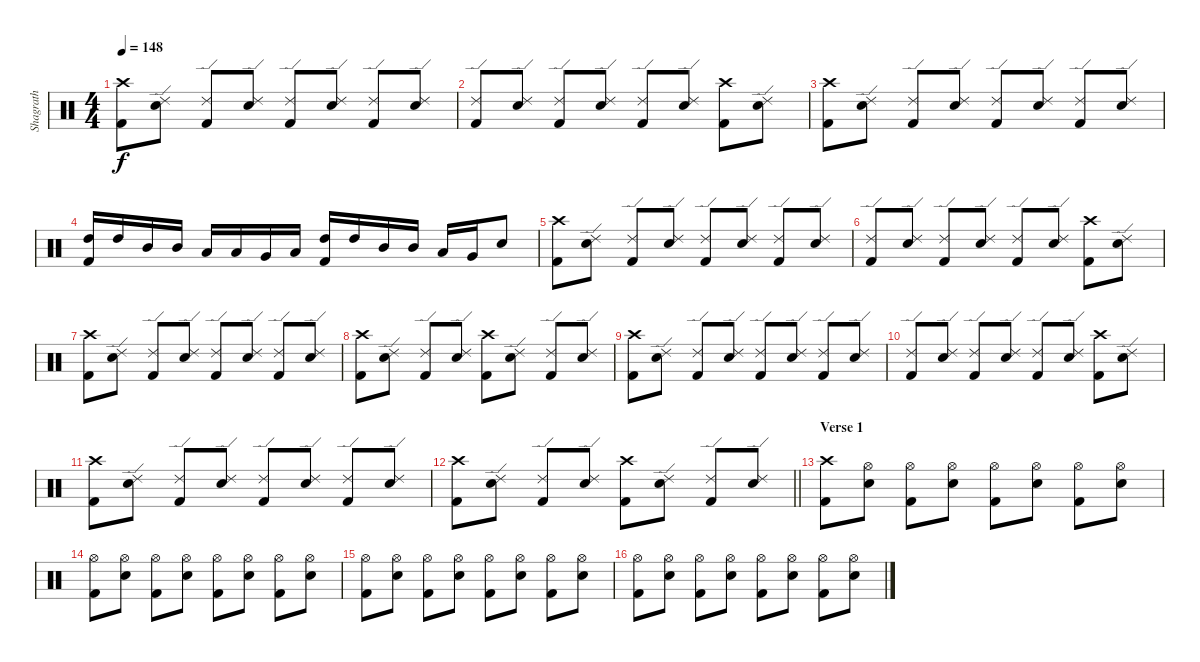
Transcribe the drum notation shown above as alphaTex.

\track ("Shagrath" "Shagrath") {instrument percussion}
\staff {score}
\articulation defaults
\ts (4 4)
\tempo 148
\clef neutral
\ks c
("Crash high (hit)" "Kick (hit) 2").8{dy f} ("Ride (edge) 2" "Electric Snare (hit)").8 ("Ride (edge) 2" "Kick (hit) 2").8 ("Ride (edge) 2" "Electric Snare (hit)").8 ("Ride (edge) 2" "Kick (hit) 2").8 ("Ride (edge) 2" "Electric Snare (hit)").8 ("Ride (edge) 2" "Kick (hit) 2").8 ("Ride (edge) 2" "Electric Snare (hit)").8 |
("Ride (edge) 2" "Kick (hit) 2").8 ("Ride (edge) 2" "Electric Snare (hit)").8 ("Ride (edge) 2" "Kick (hit) 2").8 ("Ride (edge) 2" "Electric Snare (hit)").8 ("Ride (edge) 2" "Kick (hit) 2").8 ("Ride (edge) 2" "Electric Snare (hit)").8 ("Crash high (hit)" "Kick (hit) 2").8 ("Ride (edge) 2" "Electric Snare (hit)").8 |
("Crash high (hit)" "Kick (hit) 2").8 ("Ride (edge) 2" "Electric Snare (hit)").8 ("Ride (edge) 2" "Kick (hit) 2").8 ("Ride (edge) 2" "Electric Snare (hit)").8 ("Ride (edge) 2" "Kick (hit) 2").8 ("Ride (edge) 2" "Electric Snare (hit)").8 ("Ride (edge) 2" "Kick (hit) 2").8 ("Ride (edge) 2" "Electric Snare (hit)").8 |
("High Tom (hit)" "Kick (hit) 2").16 "High Tom (hit)".16 "Mid Tom (hit)".16 "Mid Tom (hit)".16 "Low Tom (hit)".16 "Low Tom (hit)".16 "Very Low Tom (hit)".16 "Low Floor Tom (hit)".16 ("High Tom (hit)" "Kick (hit) 2").16 "High Tom (hit)".16 "Mid Tom (hit)".16 "Mid Tom (hit)".16 "Low Tom (hit)".16 "Very Low Tom (hit)".16 "Electric Snare (hit)".8 |
("Crash high (hit)" "Kick (hit) 2").8 ("Ride (edge) 2" "Electric Snare (hit)").8 ("Ride (edge) 2" "Kick (hit) 2").8 ("Ride (edge) 2" "Electric Snare (hit)").8 ("Ride (edge) 2" "Kick (hit) 2").8 ("Ride (edge) 2" "Electric Snare (hit)").8 ("Ride (edge) 2" "Kick (hit) 2").8 ("Ride (edge) 2" "Electric Snare (hit)").8 |
("Ride (edge) 2" "Kick (hit) 2").8 ("Ride (edge) 2" "Electric Snare (hit)").8 ("Ride (edge) 2" "Kick (hit) 2").8 ("Ride (edge) 2" "Electric Snare (hit)").8 ("Ride (edge) 2" "Kick (hit) 2").8 ("Ride (edge) 2" "Electric Snare (hit)").8 ("Crash high (hit)" "Kick (hit) 2").8 ("Ride (edge) 2" "Electric Snare (hit)").8 |
("Crash high (hit)" "Kick (hit) 2").8 ("Ride (edge) 2" "Electric Snare (hit)").8 ("Ride (edge) 2" "Kick (hit) 2").8 ("Ride (edge) 2" "Electric Snare (hit)").8 ("Ride (edge) 2" "Kick (hit) 2").8 ("Ride (edge) 2" "Electric Snare (hit)").8 ("Ride (edge) 2" "Kick (hit) 2").8 ("Ride (edge) 2" "Electric Snare (hit)").8 |
("Crash high (hit)" "Kick (hit) 2").8 ("Ride (edge) 2" "Electric Snare (hit)").8 ("Ride (edge) 2" "Kick (hit) 2").8 ("Ride (edge) 2" "Electric Snare (hit)").8 ("Crash high (hit)" "Kick (hit) 2").8 ("Ride (edge) 2" "Electric Snare (hit)").8 ("Ride (edge) 2" "Kick (hit) 2").8 ("Ride (edge) 2" "Electric Snare (hit)").8 |
("Crash high (hit)" "Kick (hit) 2").8 ("Ride (edge) 2" "Electric Snare (hit)").8 ("Ride (edge) 2" "Kick (hit) 2").8 ("Ride (edge) 2" "Electric Snare (hit)").8 ("Ride (edge) 2" "Kick (hit) 2").8 ("Ride (edge) 2" "Electric Snare (hit)").8 ("Ride (edge) 2" "Kick (hit) 2").8 ("Ride (edge) 2" "Electric Snare (hit)").8 |
("Ride (edge) 2" "Kick (hit) 2").8 ("Ride (edge) 2" "Electric Snare (hit)").8 ("Ride (edge) 2" "Kick (hit) 2").8 ("Ride (edge) 2" "Electric Snare (hit)").8 ("Ride (edge) 2" "Kick (hit) 2").8 ("Ride (edge) 2" "Electric Snare (hit)").8 ("Crash high (hit)" "Kick (hit) 2").8 ("Ride (edge) 2" "Electric Snare (hit)").8 |
("Crash high (hit)" "Kick (hit) 2").8 ("Ride (edge) 2" "Electric Snare (hit)").8 ("Ride (edge) 2" "Kick (hit) 2").8 ("Ride (edge) 2" "Electric Snare (hit)").8 ("Ride (edge) 2" "Kick (hit) 2").8 ("Ride (edge) 2" "Electric Snare (hit)").8 ("Ride (edge) 2" "Kick (hit) 2").8 ("Ride (edge) 2" "Electric Snare (hit)").8 |
\barLineRight lightlight
("Crash high (hit)" "Kick (hit) 2").8 ("Ride (edge) 2" "Electric Snare (hit)").8 ("Ride (edge) 2" "Kick (hit) 2").8 ("Ride (edge) 2" "Electric Snare (hit)").8 ("Crash high (hit)" "Kick (hit) 2").8 ("Ride (edge) 2" "Electric Snare (hit)").8 ("Ride (edge) 2" "Kick (hit) 2").8 ("Ride (edge) 2" "Electric Snare (hit)").8 |
\section ("" "Verse 1")
("Crash high (hit)" "Kick (hit) 2").8 ("Hi-Hat (open)" "Electric Snare (hit)").8 ("Hi-Hat (open)" "Kick (hit) 2").8 ("Hi-Hat (open)" "Electric Snare (hit)").8 ("Hi-Hat (open)" "Kick (hit) 2").8 ("Hi-Hat (open)" "Electric Snare (hit)").8 ("Hi-Hat (open)" "Kick (hit) 2").8 ("Hi-Hat (open)" "Electric Snare (hit)").8 |
("Hi-Hat (open)" "Kick (hit) 2").8 ("Hi-Hat (open)" "Electric Snare (hit)").8 ("Hi-Hat (open)" "Kick (hit) 2").8 ("Hi-Hat (open)" "Electric Snare (hit)").8 ("Hi-Hat (open)" "Kick (hit) 2").8 ("Hi-Hat (open)" "Electric Snare (hit)").8 ("Hi-Hat (open)" "Kick (hit) 2").8 ("Hi-Hat (open)" "Electric Snare (hit)").8 |
("Hi-Hat (open)" "Kick (hit) 2").8 ("Hi-Hat (open)" "Electric Snare (hit)").8 ("Hi-Hat (open)" "Kick (hit) 2").8 ("Hi-Hat (open)" "Electric Snare (hit)").8 ("Hi-Hat (open)" "Kick (hit) 2").8 ("Hi-Hat (open)" "Electric Snare (hit)").8 ("Hi-Hat (open)" "Kick (hit) 2").8 ("Hi-Hat (open)" "Electric Snare (hit)").8 |
("Hi-Hat (open)" "Kick (hit) 2").8 ("Hi-Hat (open)" "Electric Snare (hit)").8 ("Hi-Hat (open)" "Kick (hit) 2").8 ("Hi-Hat (open)" "Electric Snare (hit)").8 ("Hi-Hat (open)" "Kick (hit) 2").8 ("Hi-Hat (open)" "Electric Snare (hit)").8 ("Hi-Hat (open)" "Kick (hit) 2").8 ("Hi-Hat (open)" "Electric Snare (hit)").8
